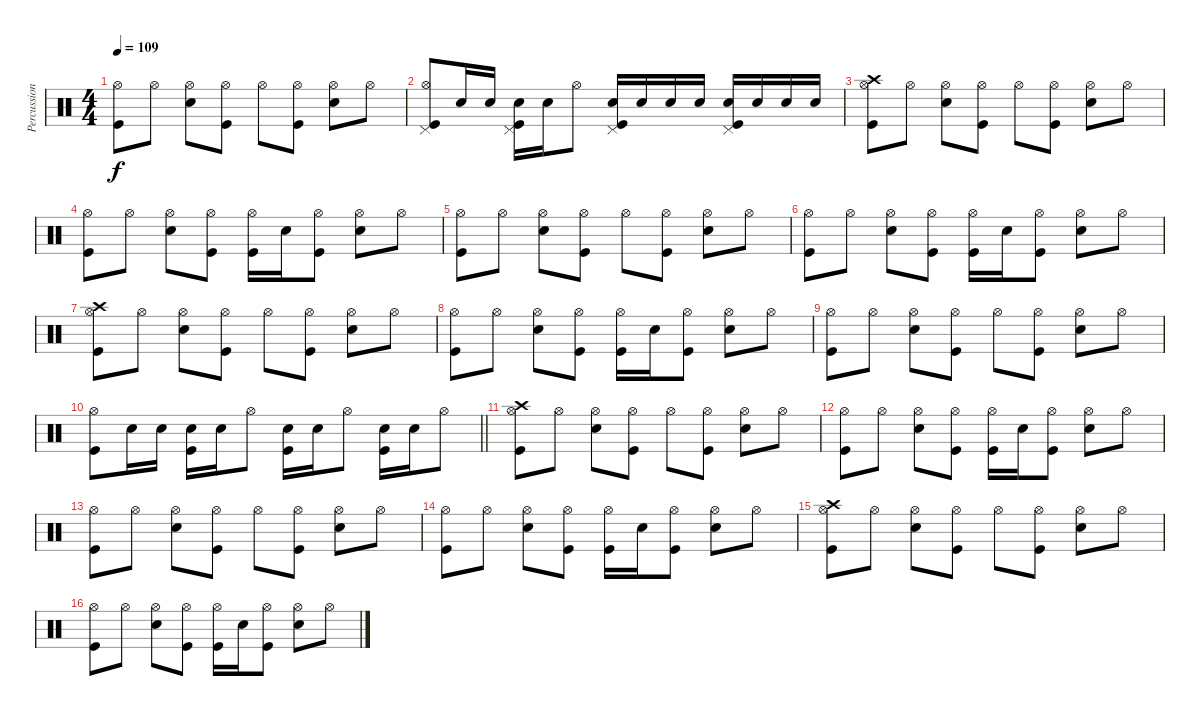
\track ("Percussioni" "Percussion") {instrument percussion}
\staff {score}
\articulation defaults
\ts (4 4)
\tempo 109
\clef neutral
\ks c
("Kick (hit)" "Hi-Hat (open)").8{dy f} "Hi-Hat (open)".8 ("Snare (hit) 2" "Hi-Hat (open)").8 ("Kick (hit)" "Hi-Hat (open)").8 "Hi-Hat (open)".8 ("Kick (hit)" "Hi-Hat (open)").8 ("Snare (hit) 2" "Hi-Hat (open)").8 "Hi-Hat (open)".8 |
("Pedal Hi-Hat (hit)" "Hi-Hat (open)" "Kick (hit)").8 "Snare (hit) 2".16 "Snare (hit) 2".16 ("Pedal Hi-Hat (hit)" "Snare (hit) 2" "Kick (hit)").16 "Snare (hit) 2".16 "Hi-Hat (open)".8 ("Pedal Hi-Hat (hit)" "Snare (hit) 2" "Kick (hit)").16 "Snare (hit) 2".16 "Snare (hit) 2".16 "Snare (hit) 2".16 ("Pedal Hi-Hat (hit)" "Snare (hit) 2" "Kick (hit)").16 "Snare (hit) 2".16 "Snare (hit) 2".16 "Snare (hit) 2".16 |
("Crash high (hit)" "Kick (hit)" "Hi-Hat (open)").8 "Hi-Hat (open)".8 ("Snare (hit) 2" "Hi-Hat (open)").8 ("Kick (hit)" "Hi-Hat (open)").8 "Hi-Hat (open)".8 ("Kick (hit)" "Hi-Hat (open)").8 ("Snare (hit) 2" "Hi-Hat (open)").8 "Hi-Hat (open)".8 |
("Kick (hit)" "Hi-Hat (open)").8 "Hi-Hat (open)".8 ("Snare (hit) 2" "Hi-Hat (open)").8 ("Kick (hit)" "Hi-Hat (open)").8 ("Kick (hit)" "Hi-Hat (open)").16 "Snare (hit) 2".16 ("Kick (hit)" "Hi-Hat (open)").8 ("Snare (hit) 2" "Hi-Hat (open)").8 "Hi-Hat (open)".8 |
("Kick (hit)" "Hi-Hat (open)").8 "Hi-Hat (open)".8 ("Snare (hit) 2" "Hi-Hat (open)").8 ("Kick (hit)" "Hi-Hat (open)").8 "Hi-Hat (open)".8 ("Kick (hit)" "Hi-Hat (open)").8 ("Snare (hit) 2" "Hi-Hat (open)").8 "Hi-Hat (open)".8 |
("Kick (hit)" "Hi-Hat (open)").8 "Hi-Hat (open)".8 ("Snare (hit) 2" "Hi-Hat (open)").8 ("Kick (hit)" "Hi-Hat (open)").8 ("Kick (hit)" "Hi-Hat (open)").16 "Snare (hit) 2".16 ("Kick (hit)" "Hi-Hat (open)").8 ("Snare (hit) 2" "Hi-Hat (open)").8 "Hi-Hat (open)".8 |
("Crash high (hit)" "Kick (hit)" "Hi-Hat (open)").8 "Hi-Hat (open)".8 ("Snare (hit) 2" "Hi-Hat (open)").8 ("Kick (hit)" "Hi-Hat (open)").8 "Hi-Hat (open)".8 ("Kick (hit)" "Hi-Hat (open)").8 ("Snare (hit) 2" "Hi-Hat (open)").8 "Hi-Hat (open)".8 |
("Kick (hit)" "Hi-Hat (open)").8 "Hi-Hat (open)".8 ("Snare (hit) 2" "Hi-Hat (open)").8 ("Kick (hit)" "Hi-Hat (open)").8 ("Kick (hit)" "Hi-Hat (open)").16 "Snare (hit) 2".16 ("Kick (hit)" "Hi-Hat (open)").8 ("Snare (hit) 2" "Hi-Hat (open)").8 "Hi-Hat (open)".8 |
("Kick (hit)" "Hi-Hat (open)").8 "Hi-Hat (open)".8 ("Snare (hit) 2" "Hi-Hat (open)").8 ("Kick (hit)" "Hi-Hat (open)").8 "Hi-Hat (open)".8 ("Kick (hit)" "Hi-Hat (open)").8 ("Snare (hit) 2" "Hi-Hat (open)").8 "Hi-Hat (open)".8 |
\barLineRight lightlight
("Hi-Hat (open)" "Kick (hit)").8 "Snare (hit) 2".16 "Snare (hit) 2".16 ("Snare (hit) 2" "Kick (hit)").16 "Snare (hit) 2".16 "Hi-Hat (open)".8 ("Snare (hit) 2" "Kick (hit)").16 "Snare (hit) 2".16 "Hi-Hat (open)".8 ("Snare (hit) 2" "Kick (hit)").16 "Snare (hit) 2".16 "Hi-Hat (open)".8 |
("Crash high (hit)" "Kick (hit)" "Hi-Hat (open)").8 "Hi-Hat (open)".8 ("Snare (hit) 2" "Hi-Hat (open)").8 ("Kick (hit)" "Hi-Hat (open)").8 "Hi-Hat (open)".8 ("Kick (hit)" "Hi-Hat (open)").8 ("Snare (hit) 2" "Hi-Hat (open)").8 "Hi-Hat (open)".8 |
("Kick (hit)" "Hi-Hat (open)").8 "Hi-Hat (open)".8 ("Snare (hit) 2" "Hi-Hat (open)").8 ("Kick (hit)" "Hi-Hat (open)").8 ("Kick (hit)" "Hi-Hat (open)").16 "Snare (hit) 2".16 ("Kick (hit)" "Hi-Hat (open)").8 ("Snare (hit) 2" "Hi-Hat (open)").8 "Hi-Hat (open)".8 |
("Kick (hit)" "Hi-Hat (open)").8 "Hi-Hat (open)".8 ("Snare (hit) 2" "Hi-Hat (open)").8 ("Kick (hit)" "Hi-Hat (open)").8 "Hi-Hat (open)".8 ("Kick (hit)" "Hi-Hat (open)").8 ("Snare (hit) 2" "Hi-Hat (open)").8 "Hi-Hat (open)".8 |
("Kick (hit)" "Hi-Hat (open)").8 "Hi-Hat (open)".8 ("Snare (hit) 2" "Hi-Hat (open)").8 ("Kick (hit)" "Hi-Hat (open)").8 ("Kick (hit)" "Hi-Hat (open)").16 "Snare (hit) 2".16 ("Kick (hit)" "Hi-Hat (open)").8 ("Snare (hit) 2" "Hi-Hat (open)").8 "Hi-Hat (open)".8 |
("Crash high (hit)" "Kick (hit)" "Hi-Hat (open)").8 "Hi-Hat (open)".8 ("Snare (hit) 2" "Hi-Hat (open)").8 ("Kick (hit)" "Hi-Hat (open)").8 "Hi-Hat (open)".8 ("Kick (hit)" "Hi-Hat (open)").8 ("Snare (hit) 2" "Hi-Hat (open)").8 "Hi-Hat (open)".8 |
("Kick (hit)" "Hi-Hat (open)").8 "Hi-Hat (open)".8 ("Snare (hit) 2" "Hi-Hat (open)").8 ("Kick (hit)" "Hi-Hat (open)").8 ("Kick (hit)" "Hi-Hat (open)").16 "Snare (hit) 2".16 ("Kick (hit)" "Hi-Hat (open)").8 ("Snare (hit) 2" "Hi-Hat (open)").8 "Hi-Hat (open)".8
